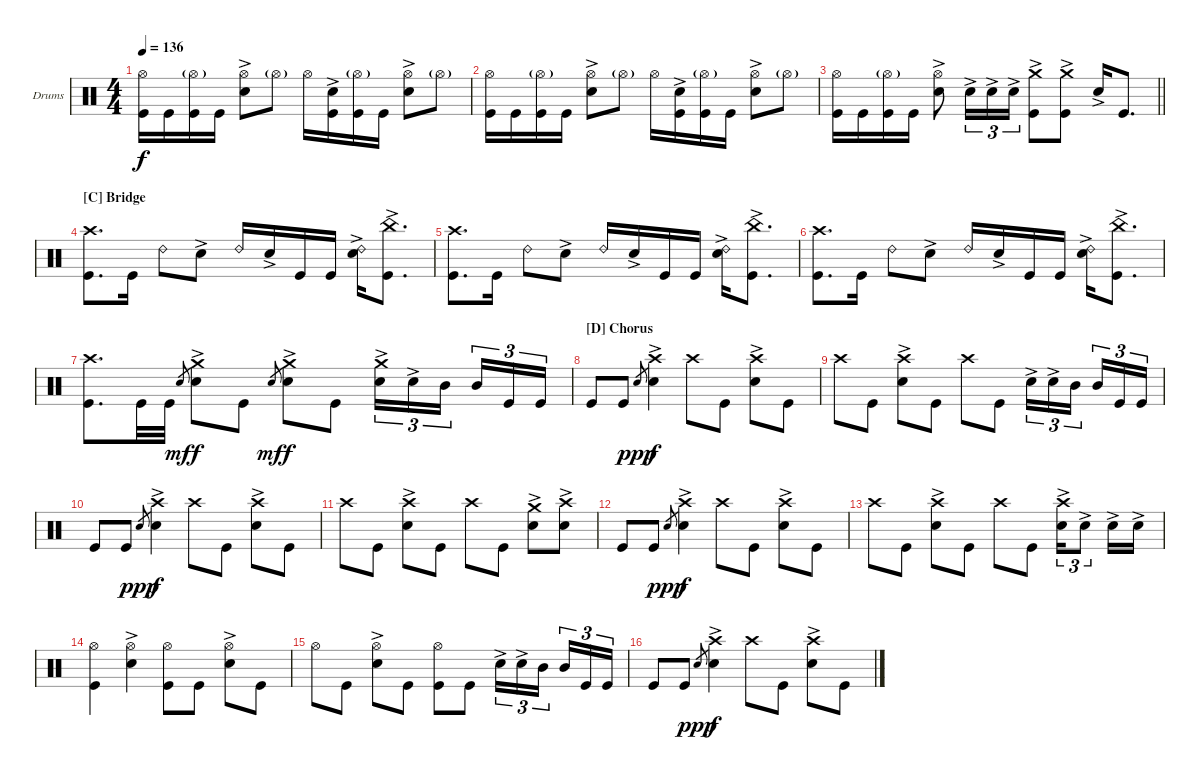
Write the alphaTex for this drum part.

\bracketExtendMode groupsimilarinstruments
\firstSystemTrackNameOrientation horizontal
\otherSystemsTrackNameOrientation horizontal
\track ("Drumkit" "Drums") {instrument percussion}
\staff {score}
\articulation defaults
\ts (4 4)
\tempo 136
\clef neutral
\ks c
("Hi-Hat (open)" "Kick (hit)").16{dy f} "Kick (hit)".16 ("Kick (hit)" "Hi-Hat (open)"{g}).16 "Kick (hit)".16 ("Hi-Hat (open)" "Snare (hit) 2"{ac}).8 "Hi-Hat (open)"{g}.8 "Hi-Hat (open)".16 ("Snare (hit) 2"{ac} "Kick (hit)").16 ("Kick (hit)" "Hi-Hat (open)"{g}).16 "Kick (hit)".16 ("Hi-Hat (open)" "Snare (hit) 2"{ac}).8 "Hi-Hat (open)"{g}.8 |
("Hi-Hat (open)" "Kick (hit)").16 "Kick (hit)".16 ("Kick (hit)" "Hi-Hat (open)"{g}).16 "Kick (hit)".16 ("Hi-Hat (open)" "Snare (hit) 2"{ac}).8 "Hi-Hat (open)"{g}.8 "Hi-Hat (open)".16 ("Snare (hit) 2"{ac} "Kick (hit)").16 ("Kick (hit)" "Hi-Hat (open)"{g}).16 "Kick (hit)".16 ("Hi-Hat (open)" "Snare (hit) 2"{ac}).8 "Hi-Hat (open)"{g}.8 |
\barLineRight lightlight
("Hi-Hat (open)" "Kick (hit)").16 "Kick (hit)".16 ("Kick (hit)" "Hi-Hat (open)"{g}).16 "Kick (hit)".16 ("Hi-Hat (open)" "Snare (hit) 2"{ac}).8 "Snare (hit) 2"{ac}.16{tu (3 2)} "Snare (hit) 2"{ac}.16{tu (3 2)} "Snare (hit) 2"{ac}.16{tu (3 2)} ("Crash medium (hit)"{ac} "Kick (hit)").8 ("Crash medium (hit)"{ac} "Kick (hit)").8 "Snare (hit) 2"{ac}.16 "Kick (hit)".8{d} |
\section ("C" "Bridge")
("Crash high (hit)" "Kick (hit)").8{d} "Kick (hit)".16 "Ride (bell) 2".8 "Snare (hit) 2"{ac}.8 "Ride (bell) 2".16 "Snare (hit) 2"{ac}.16 "Kick (hit)".16 "Kick (hit)".16 ("Ride (bell) 2" "Snare (hit) 2"{ac}).16 ("Kick (hit)" "China (hit)"{ac}).8{d} |
("Crash high (hit)" "Kick (hit)").8{d} "Kick (hit)".16 "Ride (bell) 2".8 "Snare (hit) 2"{ac}.8 "Ride (bell) 2".16 "Snare (hit) 2"{ac}.16 "Kick (hit)".16 "Kick (hit)".16 ("Ride (bell) 2" "Snare (hit) 2"{ac}).16 ("Kick (hit)" "China (hit)"{ac}).8{d} |
("Crash high (hit)" "Kick (hit)").8{d} "Kick (hit)".16 "Ride (bell) 2".8 "Snare (hit) 2"{ac}.8 "Ride (bell) 2".16 "Snare (hit) 2"{ac}.16 "Kick (hit)".16 "Kick (hit)".16 ("Ride (bell) 2" "Snare (hit) 2"{ac}).16 ("Kick (hit)" "China (hit)"{ac}).8{d} |
("Crash high (hit)" "Kick (hit)").8{d} "Kick (hit)".32 "Kick (hit)".32 "Snare (hit) 2".8{gr dy mf} ("Crash medium (hit)"{ac} "Snare (hit) 2"{ac}).8{dy f} "Kick (hit)".8 "Snare (hit) 2".8{gr dy mf} ("Crash medium (hit)"{ac} "Snare (hit) 2"{ac}).8{dy f} "Kick (hit)".8 ("Snare (hit) 2"{ac} "Crash medium (hit)"{ac}).16{tu (3 2)} "Snare (hit) 2"{ac}.16{tu (3 2)} "Mid Tom (hit)".16{tu (3 2)} "Mid Tom (hit)".16{tu (3 2)} "Kick (hit)".16{tu (3 2)} "Kick (hit)".16{tu (3 2)} |
\section ("D" "Chorus")
"Kick (hit)".8 "Kick (hit)".8 "Snare (hit) 2".8{gr dy ppp} ("Crash high (hit)" "Snare (hit) 2"{ac}).4{dy f} "Crash high (hit)".8 "Kick (hit)".8 ("Crash high (hit)" "Snare (hit) 2"{ac}).8 "Kick (hit)".8 |
"Crash high (hit)".8 "Kick (hit)".8 ("Crash high (hit)" "Snare (hit) 2"{ac}).8 "Kick (hit)".8 "Crash high (hit)".8 "Kick (hit)".8 "Snare (hit) 2"{ac}.16{tu (3 2)} "Snare (hit) 2"{ac}.16{tu (3 2)} "Mid Tom (hit)".16{tu (3 2)} "Mid Tom (hit)".16{tu (3 2)} "Kick (hit)".16{tu (3 2)} "Kick (hit)".16{tu (3 2)} |
"Kick (hit)".8 "Kick (hit)".8 "Snare (hit) 2".8{gr dy ppp} ("Crash high (hit)" "Snare (hit) 2"{ac}).4{dy f} "Crash high (hit)".8 "Kick (hit)".8 ("Crash high (hit)" "Snare (hit) 2"{ac}).8 "Kick (hit)".8 |
"Crash high (hit)".8 "Kick (hit)".8 ("Crash high (hit)" "Snare (hit) 2"{ac}).8 "Kick (hit)".8 "Crash high (hit)".8 "Kick (hit)".8 ("Crash medium (hit)"{ac} "Snare (hit) 2"{ac}).8 ("Crash high (hit)" "Snare (hit) 2"{ac}).8 |
"Kick (hit)".8 "Kick (hit)".8 "Snare (hit) 2".8{gr dy ppp} ("Crash high (hit)" "Snare (hit) 2"{ac}).4{dy f} "Crash high (hit)".8 "Kick (hit)".8 ("Crash high (hit)" "Snare (hit) 2"{ac}).8 "Kick (hit)".8 |
"Crash high (hit)".8 "Kick (hit)".8 ("Crash high (hit)" "Snare (hit) 2"{ac}).8 "Kick (hit)".8 "Crash high (hit)".8 "Kick (hit)".8 ("Crash high (hit)" "Snare (hit) 2"{ac}).16{tu (3 2)} "Snare (hit) 2"{ac}.8{tu (3 2)} "Snare (hit) 2"{ac}.16 "Snare (hit) 2"{ac}.16 |
("Hi-Hat (open)" "Kick (hit)").4 ("Hi-Hat (open)" "Snare (hit) 2"{ac}).4 ("Hi-Hat (open)" "Kick (hit)").8 "Kick (hit)".8 ("Hi-Hat (open)" "Snare (hit) 2"{ac}).8 "Kick (hit)".8 |
"Hi-Hat (open)".8 "Kick (hit)".8 ("Hi-Hat (open)" "Snare (hit) 2"{ac}).8 "Kick (hit)".8 ("Hi-Hat (open)" "Kick (hit)").8 "Kick (hit)".8 "Snare (hit) 2"{ac}.16{tu (3 2)} "Snare (hit) 2"{ac}.16{tu (3 2)} "Mid Tom (hit)".16{tu (3 2)} "Mid Tom (hit)".16{tu (3 2)} "Kick (hit)".16{tu (3 2)} "Kick (hit)".16{tu (3 2)} |
"Kick (hit)".8 "Kick (hit)".8 "Snare (hit) 2".8{gr dy ppp} ("Crash high (hit)" "Snare (hit) 2"{ac}).4{dy f} "Crash high (hit)".8 "Kick (hit)".8 ("Crash high (hit)" "Snare (hit) 2"{ac}).8 "Kick (hit)".8
